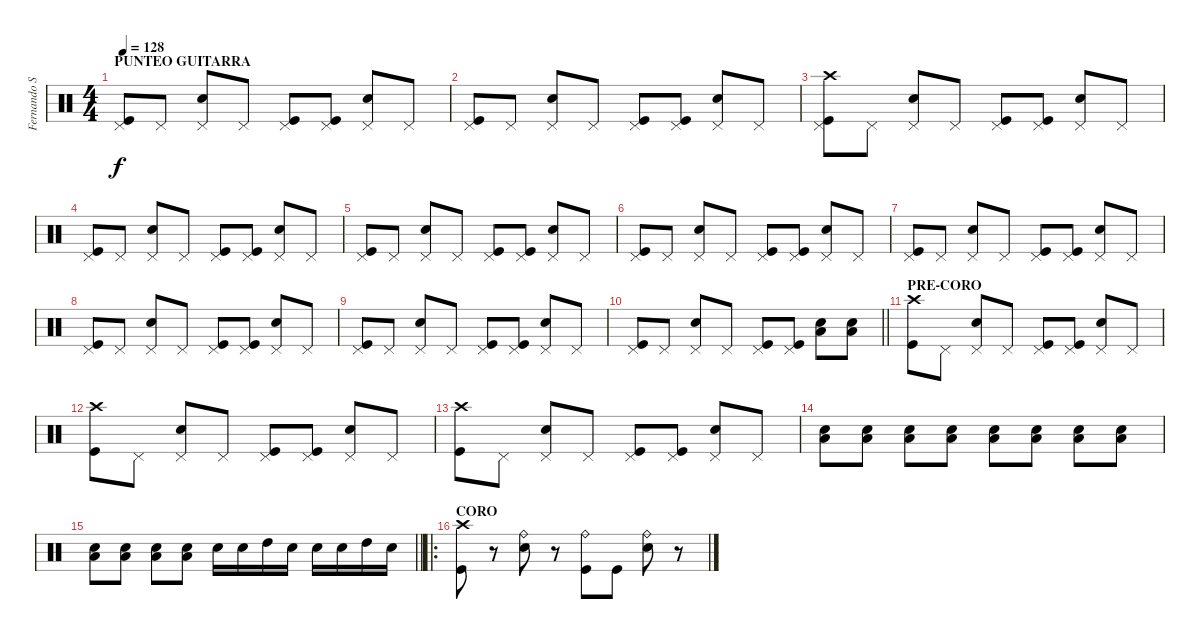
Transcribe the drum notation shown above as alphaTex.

\track ("Fernando Scarcella" "Fernando S") {instrument percussion}
\staff {score}
\articulation defaults
\ts (4 4)
\section ("" "PUNTEO GUITARRA")
\tempo 128
\clef neutral
\ks c
("Kick (hit)" "Pedal Hi-Hat (hit)").8{dy f} "Pedal Hi-Hat (hit)".8 ("Snare (hit) 2" "Pedal Hi-Hat (hit)").8 "Pedal Hi-Hat (hit)".8 ("Kick (hit)" "Pedal Hi-Hat (hit)").8 ("Kick (hit)" "Pedal Hi-Hat (hit)").8 ("Snare (hit) 2" "Pedal Hi-Hat (hit)").8 "Pedal Hi-Hat (hit)".8 |
("Kick (hit)" "Pedal Hi-Hat (hit)").8 "Pedal Hi-Hat (hit)".8 ("Snare (hit) 2" "Pedal Hi-Hat (hit)").8 "Pedal Hi-Hat (hit)".8 ("Kick (hit)" "Pedal Hi-Hat (hit)").8 ("Kick (hit)" "Pedal Hi-Hat (hit)").8 ("Snare (hit) 2" "Pedal Hi-Hat (hit)").8 "Pedal Hi-Hat (hit)".8 |
("Kick (hit)" "Pedal Hi-Hat (hit)" "Crash high (hit)").8 "Pedal Hi-Hat (hit)".8 ("Snare (hit) 2" "Pedal Hi-Hat (hit)").8 "Pedal Hi-Hat (hit)".8 ("Kick (hit)" "Pedal Hi-Hat (hit)").8 ("Kick (hit)" "Pedal Hi-Hat (hit)").8 ("Snare (hit) 2" "Pedal Hi-Hat (hit)").8 "Pedal Hi-Hat (hit)".8 |
("Kick (hit)" "Pedal Hi-Hat (hit)").8 "Pedal Hi-Hat (hit)".8 ("Snare (hit) 2" "Pedal Hi-Hat (hit)").8 "Pedal Hi-Hat (hit)".8 ("Kick (hit)" "Pedal Hi-Hat (hit)").8 ("Kick (hit)" "Pedal Hi-Hat (hit)").8 ("Snare (hit) 2" "Pedal Hi-Hat (hit)").8 "Pedal Hi-Hat (hit)".8 |
("Kick (hit)" "Pedal Hi-Hat (hit)").8 "Pedal Hi-Hat (hit)".8 ("Snare (hit) 2" "Pedal Hi-Hat (hit)").8 "Pedal Hi-Hat (hit)".8 ("Kick (hit)" "Pedal Hi-Hat (hit)").8 ("Kick (hit)" "Pedal Hi-Hat (hit)").8 ("Snare (hit) 2" "Pedal Hi-Hat (hit)").8 "Pedal Hi-Hat (hit)".8 |
("Kick (hit)" "Pedal Hi-Hat (hit)").8 "Pedal Hi-Hat (hit)".8 ("Snare (hit) 2" "Pedal Hi-Hat (hit)").8 "Pedal Hi-Hat (hit)".8 ("Kick (hit)" "Pedal Hi-Hat (hit)").8 ("Kick (hit)" "Pedal Hi-Hat (hit)").8 ("Snare (hit) 2" "Pedal Hi-Hat (hit)").8 "Pedal Hi-Hat (hit)".8 |
("Kick (hit)" "Pedal Hi-Hat (hit)").8 "Pedal Hi-Hat (hit)".8 ("Snare (hit) 2" "Pedal Hi-Hat (hit)").8 "Pedal Hi-Hat (hit)".8 ("Kick (hit)" "Pedal Hi-Hat (hit)").8 ("Kick (hit)" "Pedal Hi-Hat (hit)").8 ("Snare (hit) 2" "Pedal Hi-Hat (hit)").8 "Pedal Hi-Hat (hit)".8 |
("Kick (hit)" "Pedal Hi-Hat (hit)").8 "Pedal Hi-Hat (hit)".8 ("Snare (hit) 2" "Pedal Hi-Hat (hit)").8 "Pedal Hi-Hat (hit)".8 ("Kick (hit)" "Pedal Hi-Hat (hit)").8 ("Kick (hit)" "Pedal Hi-Hat (hit)").8 ("Snare (hit) 2" "Pedal Hi-Hat (hit)").8 "Pedal Hi-Hat (hit)".8 |
("Kick (hit)" "Pedal Hi-Hat (hit)").8 "Pedal Hi-Hat (hit)".8 ("Snare (hit) 2" "Pedal Hi-Hat (hit)").8 "Pedal Hi-Hat (hit)".8 ("Kick (hit)" "Pedal Hi-Hat (hit)").8 ("Kick (hit)" "Pedal Hi-Hat (hit)").8 ("Snare (hit) 2" "Pedal Hi-Hat (hit)").8 "Pedal Hi-Hat (hit)".8 |
\barLineRight lightlight
("Kick (hit)" "Pedal Hi-Hat (hit)").8 "Pedal Hi-Hat (hit)".8 ("Snare (hit) 2" "Pedal Hi-Hat (hit)").8 "Pedal Hi-Hat (hit)".8 ("Kick (hit)" "Pedal Hi-Hat (hit)").8 ("Kick (hit)" "Pedal Hi-Hat (hit)").8 ("Low Floor Tom (hit)" "Snare (hit) 2").8 ("Low Floor Tom (hit)" "Snare (hit) 2").8 |
\section ("" "PRE-CORO")
("Kick (hit)" "Crash high (hit)").8 "Pedal Hi-Hat (hit)".8 ("Snare (hit) 2" "Pedal Hi-Hat (hit)").8 "Pedal Hi-Hat (hit)".8 ("Kick (hit)" "Pedal Hi-Hat (hit)").8 ("Kick (hit)" "Pedal Hi-Hat (hit)").8 ("Snare (hit) 2" "Pedal Hi-Hat (hit)").8 "Pedal Hi-Hat (hit)".8 |
("Kick (hit)" "Crash high (hit)").8 "Pedal Hi-Hat (hit)".8 ("Snare (hit) 2" "Pedal Hi-Hat (hit)").8 "Pedal Hi-Hat (hit)".8 ("Kick (hit)" "Pedal Hi-Hat (hit)").8 ("Kick (hit)" "Pedal Hi-Hat (hit)").8 ("Snare (hit) 2" "Pedal Hi-Hat (hit)").8 "Pedal Hi-Hat (hit)".8 |
("Kick (hit)" "Crash high (hit)").8 "Pedal Hi-Hat (hit)".8 ("Snare (hit) 2" "Pedal Hi-Hat (hit)").8 "Pedal Hi-Hat (hit)".8 ("Kick (hit)" "Pedal Hi-Hat (hit)").8 ("Kick (hit)" "Pedal Hi-Hat (hit)").8 ("Snare (hit) 2" "Pedal Hi-Hat (hit)").8 "Pedal Hi-Hat (hit)".8 |
("Low Floor Tom (hit)" "Snare (hit) 2").8 ("Low Floor Tom (hit)" "Snare (hit) 2").8 ("Low Floor Tom (hit)" "Snare (hit) 2").8 ("Low Floor Tom (hit)" "Snare (hit) 2").8 ("Low Floor Tom (hit)" "Snare (hit) 2").8 ("Low Floor Tom (hit)" "Snare (hit) 2").8 ("Low Floor Tom (hit)" "Snare (hit) 2").8 ("Low Floor Tom (hit)" "Snare (hit) 2").8 |
\barLineRight lightlight
("Low Floor Tom (hit)" "Snare (hit) 2").8 ("Low Floor Tom (hit)" "Snare (hit) 2").8 ("Low Floor Tom (hit)" "Snare (hit) 2").8 ("Low Floor Tom (hit)" "Snare (hit) 2").8 "Snare (hit) 2".16 "Snare (hit) 2".16 "High Tom (hit)".16 "Snare (hit) 2".16 "Snare (hit) 2".16 "Snare (hit) 2".16 "High Tom (hit)".16 "Snare (hit) 2".16 |
\ro
\section ("" "CORO")
("Kick (hit)" "Crash high (hit)").8 r.8 ("Snare (hit) 2" "Ride (bell)").8 r.8 ("Kick (hit)" "Ride (bell)").8 "Kick (hit)".8 ("Snare (hit) 2" "Ride (bell)").8 r.8
